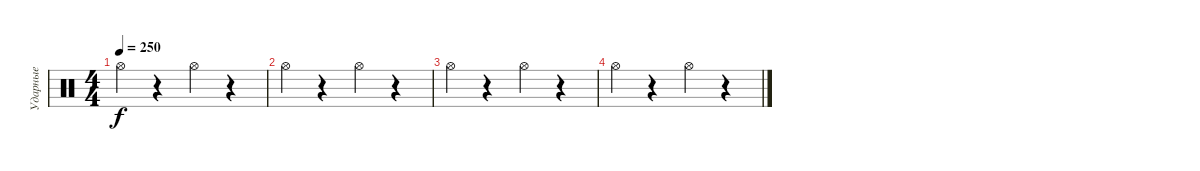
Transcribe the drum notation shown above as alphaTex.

\track ("Ударные" "Ударные") {instrument percussion}
\staff {score}
\articulation defaults
\ts (4 4)
\tempo 250
\clef neutral
\ks c "Hi-Hat (open)".4{dy f}
r.4 "Hi-Hat (open)".4 r.4 |
"Hi-Hat (open)".4 r.4 "Hi-Hat (open)".4 r.4 |
"Hi-Hat (open)".4 r.4 "Hi-Hat (open)".4 r.4 |
"Hi-Hat (open)".4 r.4 "Hi-Hat (open)".4 r.4
